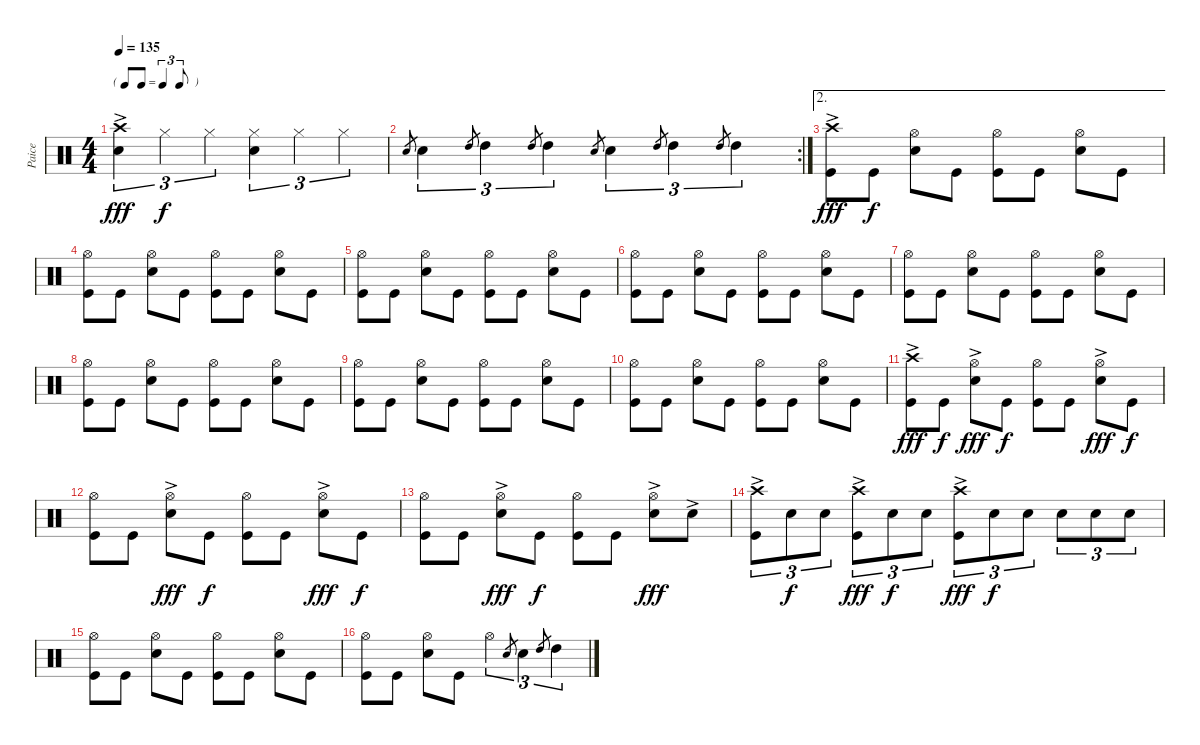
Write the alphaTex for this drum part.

\track ("Paice" "Paice") {instrument percussion}
\staff {score}
\articulation defaults
\ts (4 4)
\tf triplet8th
\tempo 135
\clef neutral
\ks c
("Crash high (hit)"{ac} "Snare (hit) 2").4{tu (3 2) dy fff} "Hi-Hat (closed)".4{tu (3 2) dy f} "Hi-Hat (closed)".4{tu (3 2)} ("Hi-Hat (closed)" "Snare (hit) 2").4{tu (3 2)} "Hi-Hat (closed)".4{tu (3 2)} "Hi-Hat (closed)".4{tu (3 2)} |
\rc 2 "Snare (hit) 2".8{gr} "Snare (hit) 2".4{tu (3 2)} "High Tom (hit)".8{gr} "High Tom (hit)".4{tu (3 2)} "High Tom (hit)".8{gr} "High Tom (hit)".4{tu (3 2)} "Snare (hit) 2".8{gr} "Snare (hit) 2".4{tu (3 2)} "High Tom (hit)".8{gr} "High Tom (hit)".4{tu (3 2)} "High Tom (hit)".8{gr} "High Tom (hit)".4{tu (3 2)}
|
\ae 2
("Crash high (hit)"{ac} "Kick (hit)").8{dy fff} "Kick (hit)".8{dy f} ("Hi-Hat (open)" "Snare (hit) 2").8 "Kick (hit)".8 ("Hi-Hat (open)" "Kick (hit)").8 "Kick (hit)".8 ("Hi-Hat (open)" "Snare (hit) 2").8 "Kick (hit)".8 |
("Hi-Hat (open)" "Kick (hit)").8 "Kick (hit)".8 ("Hi-Hat (open)" "Snare (hit) 2").8 "Kick (hit)".8 ("Hi-Hat (open)" "Kick (hit)").8 "Kick (hit)".8 ("Hi-Hat (open)" "Snare (hit) 2").8 "Kick (hit)".8 |
("Hi-Hat (open)" "Kick (hit)").8 "Kick (hit)".8 ("Hi-Hat (open)" "Snare (hit) 2").8 "Kick (hit)".8 ("Hi-Hat (open)" "Kick (hit)").8 "Kick (hit)".8 ("Hi-Hat (open)" "Snare (hit) 2").8 "Kick (hit)".8 |
("Hi-Hat (open)" "Kick (hit)").8 "Kick (hit)".8 ("Hi-Hat (open)" "Snare (hit) 2").8 "Kick (hit)".8 ("Hi-Hat (open)" "Kick (hit)").8 "Kick (hit)".8 ("Hi-Hat (open)" "Snare (hit) 2").8 "Kick (hit)".8 |
("Hi-Hat (open)" "Kick (hit)").8 "Kick (hit)".8 ("Hi-Hat (open)" "Snare (hit) 2").8 "Kick (hit)".8 ("Hi-Hat (open)" "Kick (hit)").8 "Kick (hit)".8 ("Hi-Hat (open)" "Snare (hit) 2").8 "Kick (hit)".8 |
("Hi-Hat (open)" "Kick (hit)").8 "Kick (hit)".8 ("Hi-Hat (open)" "Snare (hit) 2").8 "Kick (hit)".8 ("Hi-Hat (open)" "Kick (hit)").8 "Kick (hit)".8 ("Hi-Hat (open)" "Snare (hit) 2").8 "Kick (hit)".8 |
("Hi-Hat (open)" "Kick (hit)").8 "Kick (hit)".8 ("Hi-Hat (open)" "Snare (hit) 2").8 "Kick (hit)".8 ("Hi-Hat (open)" "Kick (hit)").8 "Kick (hit)".8 ("Hi-Hat (open)" "Snare (hit) 2").8 "Kick (hit)".8 |
("Hi-Hat (open)" "Kick (hit)").8 "Kick (hit)".8 ("Hi-Hat (open)" "Snare (hit) 2").8 "Kick (hit)".8 ("Hi-Hat (open)" "Kick (hit)").8 "Kick (hit)".8 ("Hi-Hat (open)" "Snare (hit) 2").8 "Kick (hit)".8 |
("Crash high (hit)"{ac} "Kick (hit)").8{dy fff} "Kick (hit)".8{dy f} ("Hi-Hat (open)" "Snare (hit) 2"{ac}).8{dy fff} "Kick (hit)".8{dy f} ("Hi-Hat (open)" "Kick (hit)").8 "Kick (hit)".8 ("Hi-Hat (open)" "Snare (hit) 2"{ac}).8{dy fff} "Kick (hit)".8{dy f} |
("Hi-Hat (open)" "Kick (hit)").8 "Kick (hit)".8 ("Hi-Hat (open)" "Snare (hit) 2"{ac}).8{dy fff} "Kick (hit)".8{dy f} ("Hi-Hat (open)" "Kick (hit)").8 "Kick (hit)".8 ("Hi-Hat (open)" "Snare (hit) 2"{ac}).8{dy fff} "Kick (hit)".8{dy f} |
("Hi-Hat (open)" "Kick (hit)").8 "Kick (hit)".8 ("Hi-Hat (open)" "Snare (hit) 2"{ac}).8{dy fff} "Kick (hit)".8{dy f} ("Hi-Hat (open)" "Kick (hit)").8 "Kick (hit)".8 ("Hi-Hat (open)" "Snare (hit) 2"{ac}).8{dy fff} "Snare (hit) 2"{ac}.8 |
("Crash high (hit)"{ac} "Kick (hit)").8{tu (3 2)} "Snare (hit) 2".8{tu (3 2) dy f} "Snare (hit) 2".8{tu (3 2)} ("Crash high (hit)"{ac} "Kick (hit)").8{tu (3 2) dy fff} "Snare (hit) 2".8{tu (3 2) dy f} "Snare (hit) 2".8{tu (3 2)} ("Crash high (hit)"{ac} "Kick (hit)").8{tu (3 2) dy fff} "Snare (hit) 2".8{tu (3 2) dy f} "Snare (hit) 2".8{tu (3 2)} "Snare (hit) 2".8{tu (3 2)} "Snare (hit) 2".8{tu (3 2)} "Snare (hit) 2".8{tu (3 2)} |
("Hi-Hat (open)" "Kick (hit)").8 "Kick (hit)".8 ("Hi-Hat (open)" "Snare (hit) 2").8 "Kick (hit)".8 ("Hi-Hat (open)" "Kick (hit)").8 "Kick (hit)".8 ("Hi-Hat (open)" "Snare (hit) 2").8 "Kick (hit)".8 |
("Hi-Hat (open)" "Kick (hit)").8 "Kick (hit)".8 ("Hi-Hat (open)" "Snare (hit) 2").8 "Kick (hit)".8 "Hi-Hat (open)".4{tu (3 2)} "Snare (hit) 2".8{gr} "Snare (hit) 2".4{tu (3 2)} "High Tom (hit)".8{gr} "High Tom (hit)".4{tu (3 2)}
